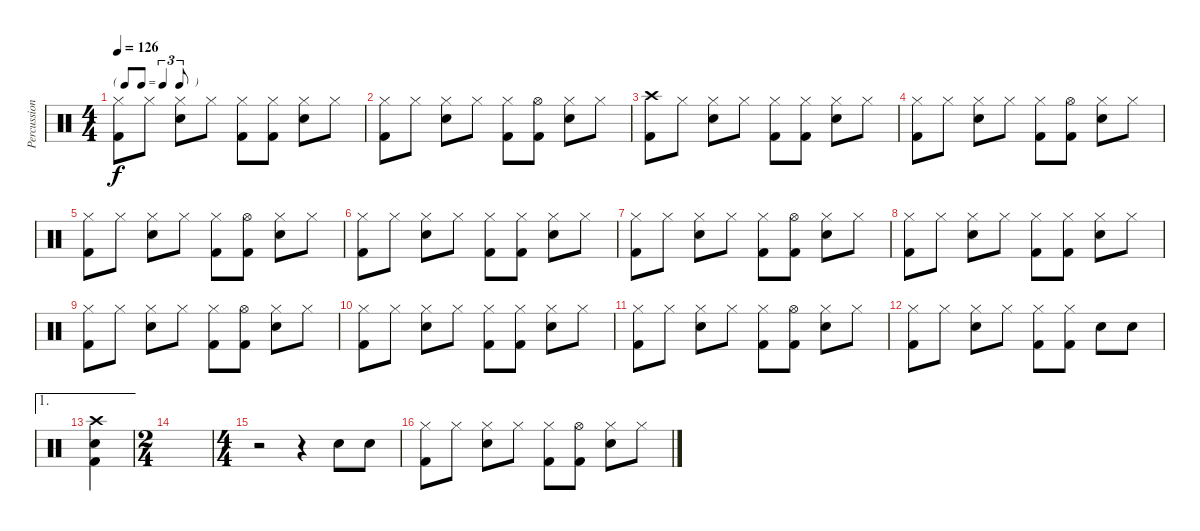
\track ("Percussion" "Percussion") {instrument percussion}
\staff {score}
\articulation defaults
\ts (4 4)
\tf triplet8th
\tempo 126
\clef neutral
\ks c
("Hi-Hat (closed)" "Kick (hit) 2").8{dy f} "Hi-Hat (closed)".8 ("Hi-Hat (closed)" "Electric Snare (hit)").8 "Hi-Hat (closed)".8 ("Hi-Hat (closed)" "Kick (hit) 2").8 ("Hi-Hat (closed)" "Kick (hit) 2").8 ("Hi-Hat (closed)" "Electric Snare (hit)").8 "Hi-Hat (closed)".8 |
("Hi-Hat (closed)" "Kick (hit) 2").8 "Hi-Hat (closed)".8 ("Hi-Hat (closed)" "Electric Snare (hit)").8 "Hi-Hat (closed)".8 ("Hi-Hat (closed)" "Kick (hit) 2").8 ("Hi-Hat (open)" "Kick (hit) 2").8 ("Hi-Hat (closed)" "Electric Snare (hit)").8 "Hi-Hat (closed)".8 |
("Crash high (hit)" "Kick (hit) 2").8 "Hi-Hat (closed)".8 ("Hi-Hat (closed)" "Electric Snare (hit)").8 "Hi-Hat (closed)".8 ("Hi-Hat (closed)" "Kick (hit) 2").8 ("Hi-Hat (closed)" "Kick (hit) 2").8 ("Hi-Hat (closed)" "Electric Snare (hit)").8 "Hi-Hat (closed)".8 |
("Hi-Hat (closed)" "Kick (hit) 2").8 "Hi-Hat (closed)".8 ("Hi-Hat (closed)" "Electric Snare (hit)").8 "Hi-Hat (closed)".8 ("Hi-Hat (closed)" "Kick (hit) 2").8 ("Hi-Hat (open)" "Kick (hit) 2").8 ("Hi-Hat (closed)" "Electric Snare (hit)").8 "Hi-Hat (closed)".8 |
("Hi-Hat (closed)" "Kick (hit) 2").8 "Hi-Hat (closed)".8 ("Hi-Hat (closed)" "Electric Snare (hit)").8 "Hi-Hat (closed)".8 ("Hi-Hat (closed)" "Kick (hit) 2").8 ("Hi-Hat (open)" "Kick (hit) 2").8 ("Hi-Hat (closed)" "Electric Snare (hit)").8 "Hi-Hat (closed)".8 |
("Hi-Hat (closed)" "Kick (hit) 2").8 "Hi-Hat (closed)".8 ("Hi-Hat (closed)" "Electric Snare (hit)").8 "Hi-Hat (closed)".8 ("Hi-Hat (closed)" "Kick (hit) 2").8 ("Hi-Hat (closed)" "Kick (hit) 2").8 ("Hi-Hat (closed)" "Electric Snare (hit)").8 "Hi-Hat (closed)".8 |
("Hi-Hat (closed)" "Kick (hit) 2").8 "Hi-Hat (closed)".8 ("Hi-Hat (closed)" "Electric Snare (hit)").8 "Hi-Hat (closed)".8 ("Hi-Hat (closed)" "Kick (hit) 2").8 ("Hi-Hat (open)" "Kick (hit) 2").8 ("Hi-Hat (closed)" "Electric Snare (hit)").8 "Hi-Hat (closed)".8 |
("Hi-Hat (closed)" "Kick (hit) 2").8 "Hi-Hat (closed)".8 ("Hi-Hat (closed)" "Electric Snare (hit)").8 "Hi-Hat (closed)".8 ("Hi-Hat (closed)" "Kick (hit) 2").8 ("Hi-Hat (closed)" "Kick (hit) 2").8 ("Hi-Hat (closed)" "Electric Snare (hit)").8 "Hi-Hat (closed)".8 |
("Hi-Hat (closed)" "Kick (hit) 2").8 "Hi-Hat (closed)".8 ("Hi-Hat (closed)" "Electric Snare (hit)").8 "Hi-Hat (closed)".8 ("Hi-Hat (closed)" "Kick (hit) 2").8 ("Hi-Hat (open)" "Kick (hit) 2").8 ("Hi-Hat (closed)" "Electric Snare (hit)").8 "Hi-Hat (closed)".8 |
("Hi-Hat (closed)" "Kick (hit) 2").8 "Hi-Hat (closed)".8 ("Hi-Hat (closed)" "Electric Snare (hit)").8 "Hi-Hat (closed)".8 ("Hi-Hat (closed)" "Kick (hit) 2").8 ("Hi-Hat (closed)" "Kick (hit) 2").8 ("Hi-Hat (closed)" "Electric Snare (hit)").8 "Hi-Hat (closed)".8 |
("Hi-Hat (closed)" "Kick (hit) 2").8 "Hi-Hat (closed)".8 ("Hi-Hat (closed)" "Electric Snare (hit)").8 "Hi-Hat (closed)".8 ("Hi-Hat (closed)" "Kick (hit) 2").8 ("Hi-Hat (open)" "Kick (hit) 2").8 ("Hi-Hat (closed)" "Electric Snare (hit)").8 "Hi-Hat (closed)".8 |
("Hi-Hat (closed)" "Kick (hit) 2").8 "Hi-Hat (closed)".8 ("Hi-Hat (closed)" "Electric Snare (hit)").8 "Hi-Hat (closed)".8 ("Hi-Hat (closed)" "Kick (hit) 2").8 ("Hi-Hat (closed)" "Kick (hit) 2").8 "Electric Snare (hit)".8 "Electric Snare (hit)".8 |
\ae 1
("Crash high (hit)" "Electric Snare (hit)" "Kick (hit) 2").4 |
\ts (2 4)
|
\ts (4 4)
r.2 r.4 "Electric Snare (hit)".8 "Electric Snare (hit)".8 |
("Hi-Hat (closed)" "Kick (hit) 2").8 "Hi-Hat (closed)".8 ("Hi-Hat (closed)" "Electric Snare (hit)").8 "Hi-Hat (closed)".8 ("Hi-Hat (closed)" "Kick (hit) 2").8 ("Hi-Hat (open)" "Kick (hit) 2").8 ("Hi-Hat (closed)" "Electric Snare (hit)").8 "Hi-Hat (closed)".8
